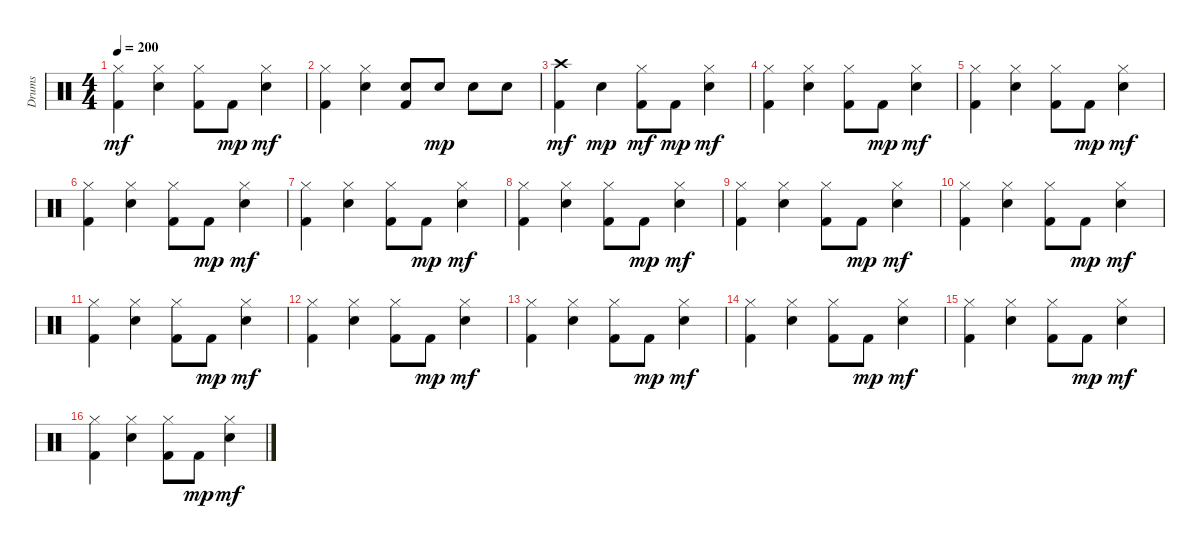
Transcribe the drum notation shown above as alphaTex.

\track ("Drums" "Drums") {instrument percussion}
\staff {score}
\articulation defaults
\ts (4 4)
\tempo 200
\clef neutral
\ks c
("Hi-Hat (closed)" "Kick (hit) 2").4{dy mf} ("Snare (hit) 2" "Hi-Hat (closed)").4 ("Hi-Hat (closed)" "Kick (hit) 2").8 "Kick (hit) 2".8{dy mp} ("Snare (hit) 2" "Hi-Hat (closed)").4{dy mf} |
("Hi-Hat (closed)" "Kick (hit) 2").4 ("Snare (hit) 2" "Hi-Hat (closed)").4 ("Snare (hit) 2" "Kick (hit) 2").8 "Snare (hit) 2".8{dy mp} "Snare (hit) 2".8 "Snare (hit) 2".8 |
("Crash high (hit)" "Kick (hit) 2").4{dy mf} "Snare (hit) 2".4{dy mp} ("Hi-Hat (closed)" "Kick (hit) 2").8{dy mf} "Kick (hit) 2".8{dy mp} ("Snare (hit) 2" "Hi-Hat (closed)").4{dy mf} |
("Hi-Hat (closed)" "Kick (hit) 2").4 ("Snare (hit) 2" "Hi-Hat (closed)").4 ("Hi-Hat (closed)" "Kick (hit) 2").8 "Kick (hit) 2".8{dy mp} ("Snare (hit) 2" "Hi-Hat (closed)").4{dy mf} |
("Hi-Hat (closed)" "Kick (hit) 2").4 ("Snare (hit) 2" "Hi-Hat (closed)").4 ("Hi-Hat (closed)" "Kick (hit) 2").8 "Kick (hit) 2".8{dy mp} ("Snare (hit) 2" "Hi-Hat (closed)").4{dy mf} |
("Hi-Hat (closed)" "Kick (hit) 2").4 ("Snare (hit) 2" "Hi-Hat (closed)").4 ("Hi-Hat (closed)" "Kick (hit) 2").8 "Kick (hit) 2".8{dy mp} ("Snare (hit) 2" "Hi-Hat (closed)").4{dy mf} |
("Hi-Hat (closed)" "Kick (hit) 2").4 ("Snare (hit) 2" "Hi-Hat (closed)").4 ("Hi-Hat (closed)" "Kick (hit) 2").8 "Kick (hit) 2".8{dy mp} ("Snare (hit) 2" "Hi-Hat (closed)").4{dy mf} |
("Hi-Hat (closed)" "Kick (hit) 2").4 ("Snare (hit) 2" "Hi-Hat (closed)").4 ("Hi-Hat (closed)" "Kick (hit) 2").8 "Kick (hit) 2".8{dy mp} ("Snare (hit) 2" "Hi-Hat (closed)").4{dy mf} |
("Hi-Hat (closed)" "Kick (hit) 2").4 ("Snare (hit) 2" "Hi-Hat (closed)").4 ("Hi-Hat (closed)" "Kick (hit) 2").8 "Kick (hit) 2".8{dy mp} ("Snare (hit) 2" "Hi-Hat (closed)").4{dy mf} |
("Hi-Hat (closed)" "Kick (hit) 2").4 ("Snare (hit) 2" "Hi-Hat (closed)").4 ("Hi-Hat (closed)" "Kick (hit) 2").8 "Kick (hit) 2".8{dy mp} ("Snare (hit) 2" "Hi-Hat (closed)").4{dy mf} |
("Hi-Hat (closed)" "Kick (hit) 2").4 ("Snare (hit) 2" "Hi-Hat (closed)").4 ("Hi-Hat (closed)" "Kick (hit) 2").8 "Kick (hit) 2".8{dy mp} ("Snare (hit) 2" "Hi-Hat (closed)").4{dy mf} |
("Hi-Hat (closed)" "Kick (hit) 2").4 ("Snare (hit) 2" "Hi-Hat (closed)").4 ("Hi-Hat (closed)" "Kick (hit) 2").8 "Kick (hit) 2".8{dy mp} ("Snare (hit) 2" "Hi-Hat (closed)").4{dy mf} |
("Hi-Hat (closed)" "Kick (hit) 2").4 ("Snare (hit) 2" "Hi-Hat (closed)").4 ("Hi-Hat (closed)" "Kick (hit) 2").8 "Kick (hit) 2".8{dy mp} ("Snare (hit) 2" "Hi-Hat (closed)").4{dy mf} |
("Hi-Hat (closed)" "Kick (hit) 2").4 ("Snare (hit) 2" "Hi-Hat (closed)").4 ("Hi-Hat (closed)" "Kick (hit) 2").8 "Kick (hit) 2".8{dy mp} ("Snare (hit) 2" "Hi-Hat (closed)").4{dy mf} |
("Hi-Hat (closed)" "Kick (hit) 2").4 ("Snare (hit) 2" "Hi-Hat (closed)").4 ("Hi-Hat (closed)" "Kick (hit) 2").8 "Kick (hit) 2".8{dy mp} ("Snare (hit) 2" "Hi-Hat (closed)").4{dy mf} |
("Hi-Hat (closed)" "Kick (hit) 2").4 ("Snare (hit) 2" "Hi-Hat (closed)").4 ("Hi-Hat (closed)" "Kick (hit) 2").8 "Kick (hit) 2".8{dy mp} ("Snare (hit) 2" "Hi-Hat (closed)").4{dy mf}
